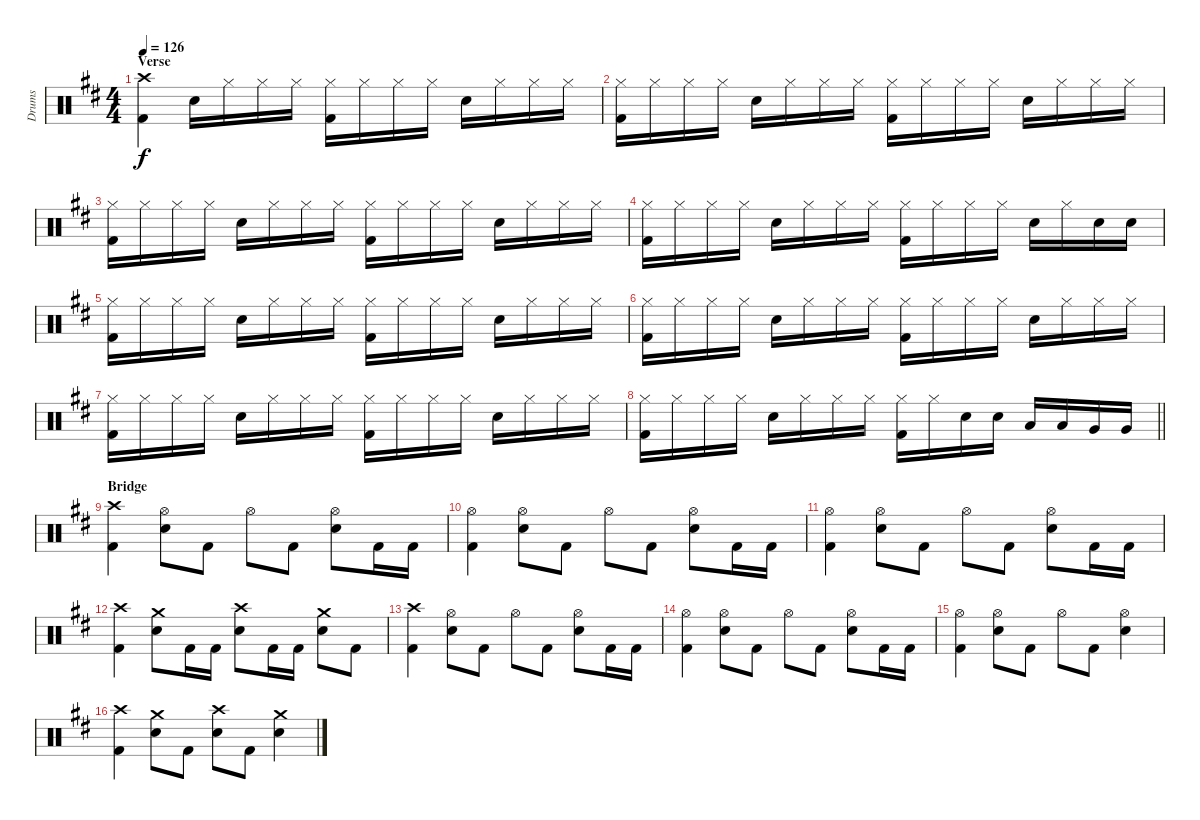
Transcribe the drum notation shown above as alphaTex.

\track ("Drums" "Drums") {instrument percussion}
\staff {score}
\articulation defaults
\ts (4 4)
\section ("" "Verse")
\tempo 126
\clef neutral
\ks d
("Crash high (hit)" "Kick (hit) 2").4{dy f} "Electric Snare (hit)".16 "Hi-Hat (closed)".16 "Hi-Hat (closed)".16 "Hi-Hat (closed)".16 ("Hi-Hat (closed)" "Kick (hit) 2").16 "Hi-Hat (closed)".16 "Hi-Hat (closed)".16 "Hi-Hat (closed)".16 "Electric Snare (hit)".16 "Hi-Hat (closed)".16 "Hi-Hat (closed)".16 "Hi-Hat (closed)".16 |
("Hi-Hat (closed)" "Kick (hit) 2").16 "Hi-Hat (closed)".16 "Hi-Hat (closed)".16 "Hi-Hat (closed)".16 "Electric Snare (hit)".16 "Hi-Hat (closed)".16 "Hi-Hat (closed)".16 "Hi-Hat (closed)".16 ("Hi-Hat (closed)" "Kick (hit) 2").16 "Hi-Hat (closed)".16 "Hi-Hat (closed)".16 "Hi-Hat (closed)".16 "Electric Snare (hit)".16 "Hi-Hat (closed)".16 "Hi-Hat (closed)".16 "Hi-Hat (closed)".16 |
("Hi-Hat (closed)" "Kick (hit) 2").16 "Hi-Hat (closed)".16 "Hi-Hat (closed)".16 "Hi-Hat (closed)".16 "Electric Snare (hit)".16 "Hi-Hat (closed)".16 "Hi-Hat (closed)".16 "Hi-Hat (closed)".16 ("Hi-Hat (closed)" "Kick (hit) 2").16 "Hi-Hat (closed)".16 "Hi-Hat (closed)".16 "Hi-Hat (closed)".16 "Electric Snare (hit)".16 "Hi-Hat (closed)".16 "Hi-Hat (closed)".16 "Hi-Hat (closed)".16 |
("Hi-Hat (closed)" "Kick (hit) 2").16 "Hi-Hat (closed)".16 "Hi-Hat (closed)".16 "Hi-Hat (closed)".16 "Electric Snare (hit)".16 "Hi-Hat (closed)".16 "Hi-Hat (closed)".16 "Hi-Hat (closed)".16 ("Hi-Hat (closed)" "Kick (hit) 2").16 "Hi-Hat (closed)".16 "Hi-Hat (closed)".16 "Hi-Hat (closed)".16 "Electric Snare (hit)".16 "Hi-Hat (closed)".16 "Electric Snare (hit)".16 "Electric Snare (hit)".16 |
("Hi-Hat (closed)" "Kick (hit) 2").16 "Hi-Hat (closed)".16 "Hi-Hat (closed)".16 "Hi-Hat (closed)".16 "Electric Snare (hit)".16 "Hi-Hat (closed)".16 "Hi-Hat (closed)".16 "Hi-Hat (closed)".16 ("Hi-Hat (closed)" "Kick (hit) 2").16 "Hi-Hat (closed)".16 "Hi-Hat (closed)".16 "Hi-Hat (closed)".16 "Electric Snare (hit)".16 "Hi-Hat (closed)".16 "Hi-Hat (closed)".16 "Hi-Hat (closed)".16 |
("Hi-Hat (closed)" "Kick (hit) 2").16 "Hi-Hat (closed)".16 "Hi-Hat (closed)".16 "Hi-Hat (closed)".16 "Electric Snare (hit)".16 "Hi-Hat (closed)".16 "Hi-Hat (closed)".16 "Hi-Hat (closed)".16 ("Hi-Hat (closed)" "Kick (hit) 2").16 "Hi-Hat (closed)".16 "Hi-Hat (closed)".16 "Hi-Hat (closed)".16 "Electric Snare (hit)".16 "Hi-Hat (closed)".16 "Hi-Hat (closed)".16 "Hi-Hat (closed)".16 |
("Hi-Hat (closed)" "Kick (hit) 2").16 "Hi-Hat (closed)".16 "Hi-Hat (closed)".16 "Hi-Hat (closed)".16 "Electric Snare (hit)".16 "Hi-Hat (closed)".16 "Hi-Hat (closed)".16 "Hi-Hat (closed)".16 ("Hi-Hat (closed)" "Kick (hit) 2").16 "Hi-Hat (closed)".16 "Hi-Hat (closed)".16 "Hi-Hat (closed)".16 "Electric Snare (hit)".16 "Hi-Hat (closed)".16 "Hi-Hat (closed)".16 "Hi-Hat (closed)".16 |
\barLineRight lightlight
("Hi-Hat (closed)" "Kick (hit) 2").16 "Hi-Hat (closed)".16 "Hi-Hat (closed)".16 "Hi-Hat (closed)".16 "Electric Snare (hit)".16 "Hi-Hat (closed)".16 "Hi-Hat (closed)".16 "Hi-Hat (closed)".16 ("Hi-Hat (closed)" "Kick (hit) 2").16 "Hi-Hat (closed)".16 "Electric Snare (hit)".16 "Electric Snare (hit)".16 "Low Tom (hit)".16 "Low Tom (hit)".16 "Very Low Tom (hit)".16 "Very Low Tom (hit)".16 |
\section ("" "Bridge")
("Crash high (hit)" "Kick (hit) 2").4 ("Hi-Hat (open)" "Electric Snare (hit)").8 "Kick (hit) 2".8 "Hi-Hat (open)".8 "Kick (hit) 2".8 ("Hi-Hat (open)" "Electric Snare (hit)").8 "Kick (hit) 2".16 "Kick (hit) 2".16 |
("Hi-Hat (open)" "Kick (hit) 2").4 ("Hi-Hat (open)" "Electric Snare (hit)").8 "Kick (hit) 2".8 "Hi-Hat (open)".8 "Kick (hit) 2".8 ("Hi-Hat (open)" "Electric Snare (hit)").8 "Kick (hit) 2".16 "Kick (hit) 2".16 |
("Hi-Hat (open)" "Kick (hit) 2").4 ("Hi-Hat (open)" "Electric Snare (hit)").8 "Kick (hit) 2".8 "Hi-Hat (open)".8 "Kick (hit) 2".8 ("Hi-Hat (open)" "Electric Snare (hit)").8 "Kick (hit) 2".16 "Kick (hit) 2".16 |
("Crash high (hit)" "Kick (hit) 2").4 ("Crash medium (hit)" "Electric Snare (hit)").8 "Kick (hit) 2".16 "Kick (hit) 2".16 ("Crash high (hit)" "Electric Snare (hit)").8 "Kick (hit) 2".16 "Kick (hit) 2".16 ("Crash medium (hit)" "Electric Snare (hit)").8 "Kick (hit) 2".8 |
("Crash high (hit)" "Kick (hit) 2").4 ("Hi-Hat (open)" "Electric Snare (hit)").8 "Kick (hit) 2".8 "Hi-Hat (open)".8 "Kick (hit) 2".8 ("Hi-Hat (open)" "Electric Snare (hit)").8 "Kick (hit) 2".16 "Kick (hit) 2".16 |
("Hi-Hat (open)" "Kick (hit) 2").4 ("Hi-Hat (open)" "Electric Snare (hit)").8 "Kick (hit) 2".8 "Hi-Hat (open)".8 "Kick (hit) 2".8 ("Hi-Hat (open)" "Electric Snare (hit)").8 "Kick (hit) 2".16 "Kick (hit) 2".16 |
("Hi-Hat (open)" "Kick (hit) 2").4 ("Hi-Hat (open)" "Electric Snare (hit)").8 "Kick (hit) 2".8 "Hi-Hat (open)".8 "Kick (hit) 2".8 ("Hi-Hat (open)" "Electric Snare (hit)").4 |
("Crash high (hit)" "Kick (hit) 2").4 ("Crash medium (hit)" "Electric Snare (hit)").8 "Kick (hit) 2".8 ("Crash high (hit)" "Electric Snare (hit)").8 "Kick (hit) 2".8 ("Crash medium (hit)" "Electric Snare (hit)").4
